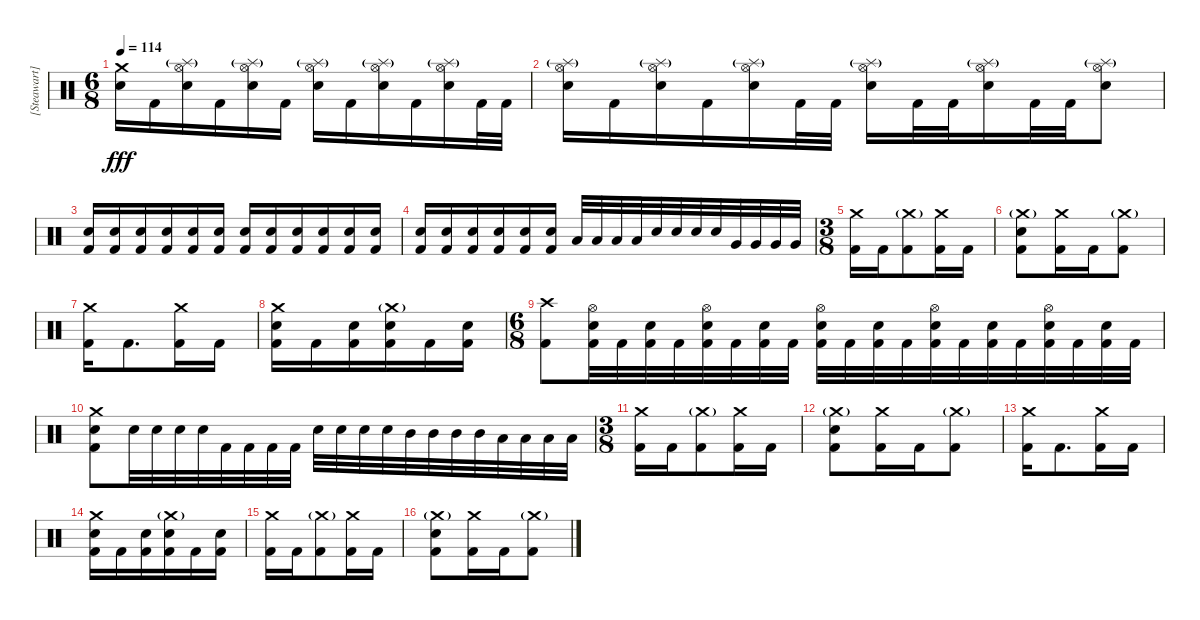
\track ("[Steawart] Drums" "[Steawart]") {solo instrument percussion}
\staff {score}
\articulation defaults
\ts (6 8)
\tempo 114
\clef neutral
\ks c
("Crash medium (hit)" "Electric Snare (hit)").16{dy fff} "Kick (hit) 2".16 ("Hi-Hat (open)" "Splash (hit)"{g} "Electric Snare (hit)").16 "Kick (hit) 2".16 ("Hi-Hat (open)" "Splash (hit)"{g} "Electric Snare (hit)").16 "Kick (hit) 2".16 ("Hi-Hat (open)" "Splash (hit)"{g} "Electric Snare (hit)").16 "Kick (hit) 2".16 ("Hi-Hat (open)" "Splash (hit)"{g} "Electric Snare (hit)").16 "Kick (hit) 2".16 ("Hi-Hat (open)" "Splash (hit)"{g} "Electric Snare (hit)").16 "Kick (hit) 2".32 "Kick (hit) 2".32 |
("Hi-Hat (open)" "Splash (hit)"{g} "Electric Snare (hit)").16 "Kick (hit) 2".16 ("Hi-Hat (open)" "Splash (hit)"{g} "Electric Snare (hit)").16 "Kick (hit) 2".16 ("Hi-Hat (open)" "Splash (hit)"{g} "Electric Snare (hit)").16 "Kick (hit) 2".32 "Kick (hit) 2".32 ("Hi-Hat (open)" "Splash (hit)"{g} "Electric Snare (hit)").16 "Kick (hit) 2".32 "Kick (hit) 2".32 ("Hi-Hat (open)" "Splash (hit)"{g} "Electric Snare (hit)").16 "Kick (hit) 2".32 "Kick (hit) 2".32 ("Hi-Hat (open)" "Splash (hit)"{g} "Electric Snare (hit)").8 |
("Electric Snare (hit)" "Kick (hit) 2").16 ("Electric Snare (hit)" "Kick (hit) 2").16 ("Electric Snare (hit)" "Kick (hit) 2").16 ("Electric Snare (hit)" "Kick (hit) 2").16 ("Electric Snare (hit)" "Kick (hit) 2").16 ("Electric Snare (hit)" "Kick (hit) 2").16 ("Electric Snare (hit)" "Kick (hit) 2").16 ("Electric Snare (hit)" "Kick (hit) 2").16 ("Electric Snare (hit)" "Kick (hit) 2").16 ("Electric Snare (hit)" "Kick (hit) 2").16 ("Electric Snare (hit)" "Kick (hit) 2").16 ("Electric Snare (hit)" "Kick (hit) 2").16 |
("Electric Snare (hit)" "Kick (hit) 2").16 ("Electric Snare (hit)" "Kick (hit) 2").16 ("Electric Snare (hit)" "Kick (hit) 2").16 ("Electric Snare (hit)" "Kick (hit) 2").16 ("Electric Snare (hit)" "Kick (hit) 2").16 ("Electric Snare (hit)" "Kick (hit) 2").16 "Low Tom (hit)".32 "Low Tom (hit)".32 "Low Tom (hit)".32 "Low Tom (hit)".32 "Electric Snare (hit)".32 "Electric Snare (hit)".32 "Electric Snare (hit)".32 "Electric Snare (hit)".32 "Very Low Tom (hit)".32 "Very Low Tom (hit)".32 "Very Low Tom (hit)".32 "Very Low Tom (hit)".32 |
\ts (3 8)
("Crash medium (hit)" "Kick (hit) 2").16 "Kick (hit) 2".16 ("Crash medium (hit)"{g} "Kick (hit) 2").8 ("Crash medium (hit)" "Kick (hit) 2").16 "Kick (hit) 2".16 |
("Crash medium (hit)"{g} "Electric Snare (hit)" "Kick (hit) 2").8 ("Crash medium (hit)" "Kick (hit) 2").16 "Kick (hit) 2".16 ("Crash medium (hit)"{g} "Kick (hit) 2").8 |
("Crash medium (hit)" "Kick (hit) 2").16 "Kick (hit) 2".8{d} ("Crash medium (hit)" "Kick (hit) 2").16 "Kick (hit) 2".16 |
("Crash medium (hit)" "Electric Snare (hit)" "Kick (hit) 2").16 "Kick (hit) 2".16 ("Electric Snare (hit)" "Kick (hit) 2").16 ("Crash medium (hit)"{g} "Electric Snare (hit)" "Kick (hit) 2").16 "Kick (hit) 2".16 ("Electric Snare (hit)" "Kick (hit) 2").16 |
\ts (6 8)
("Crash high (hit)" "Kick (hit) 2").8 ("Hi-Hat (open)" "Electric Snare (hit)" "Kick (hit) 2").32 "Kick (hit) 2".32 ("Electric Snare (hit)" "Kick (hit) 2").32 "Kick (hit) 2".32 ("Hi-Hat (open)" "Electric Snare (hit)" "Kick (hit) 2").32 "Kick (hit) 2".32 ("Electric Snare (hit)" "Kick (hit) 2").32 "Kick (hit) 2".32 ("Hi-Hat (open)" "Electric Snare (hit)" "Kick (hit) 2").32 "Kick (hit) 2".32 ("Electric Snare (hit)" "Kick (hit) 2").32 "Kick (hit) 2".32 ("Hi-Hat (open)" "Electric Snare (hit)" "Kick (hit) 2").32 "Kick (hit) 2".32 ("Electric Snare (hit)" "Kick (hit) 2").32 "Kick (hit) 2".32 ("Hi-Hat (open)" "Electric Snare (hit)" "Kick (hit) 2").32 "Kick (hit) 2".32 ("Electric Snare (hit)" "Kick (hit) 2").32 "Kick (hit) 2".32 |
("Crash medium (hit)" "Electric Snare (hit)" "Kick (hit) 2").8 "Electric Snare (hit)".32 "Electric Snare (hit)".32 "Electric Snare (hit)".32 "Electric Snare (hit)".32 "Kick (hit) 2".32 "Kick (hit) 2".32 "Kick (hit) 2".32 "Kick (hit) 2".32 "Electric Snare (hit)".32 "Electric Snare (hit)".32 "Electric Snare (hit)".32 "Electric Snare (hit)".32 "Mid Tom (hit)".32 "Mid Tom (hit)".32 "Mid Tom (hit)".32 "Mid Tom (hit)".32 "Low Tom (hit)".32 "Low Tom (hit)".32 "Low Tom (hit)".32 "Low Tom (hit)".32 |
\ts (3 8)
("Crash medium (hit)" "Kick (hit) 2").16 "Kick (hit) 2".16 ("Crash medium (hit)"{g} "Kick (hit) 2").8 ("Crash medium (hit)" "Kick (hit) 2").16 "Kick (hit) 2".16 |
("Crash medium (hit)"{g} "Electric Snare (hit)" "Kick (hit) 2").8 ("Crash medium (hit)" "Kick (hit) 2").16 "Kick (hit) 2".16 ("Crash medium (hit)"{g} "Kick (hit) 2").8 |
("Crash medium (hit)" "Kick (hit) 2").16 "Kick (hit) 2".8{d} ("Crash medium (hit)" "Kick (hit) 2").16 "Kick (hit) 2".16 |
("Crash medium (hit)" "Electric Snare (hit)" "Kick (hit) 2").16 "Kick (hit) 2".16 ("Electric Snare (hit)" "Kick (hit) 2").16 ("Crash medium (hit)"{g} "Electric Snare (hit)" "Kick (hit) 2").16 "Kick (hit) 2".16 ("Electric Snare (hit)" "Kick (hit) 2").16 |
("Crash medium (hit)" "Kick (hit) 2").16 "Kick (hit) 2".16 ("Crash medium (hit)"{g} "Kick (hit) 2").8 ("Crash medium (hit)" "Kick (hit) 2").16 "Kick (hit) 2".16 |
("Crash medium (hit)"{g} "Electric Snare (hit)" "Kick (hit) 2").8 ("Crash medium (hit)" "Kick (hit) 2").16 "Kick (hit) 2".16 ("Crash medium (hit)"{g} "Kick (hit) 2").8
